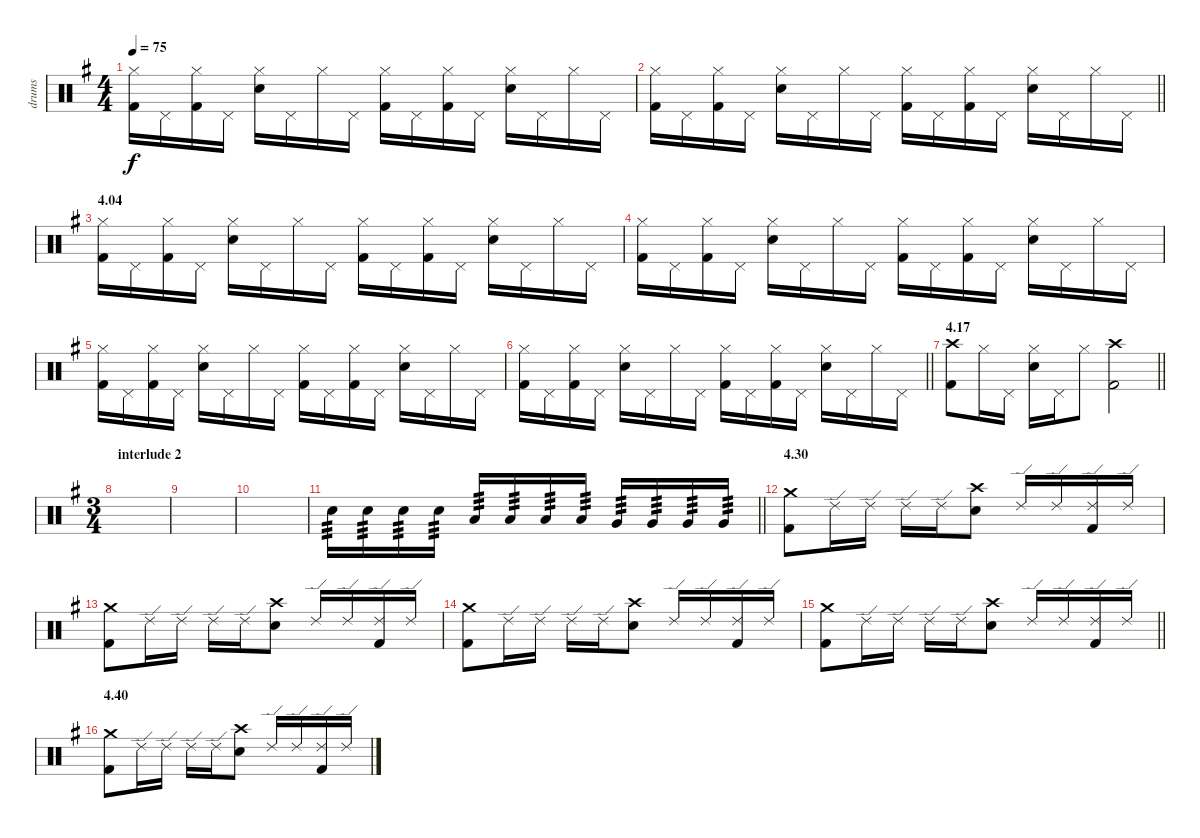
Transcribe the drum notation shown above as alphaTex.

\track ("drums" "drums") {instrument percussion}
\staff {score}
\articulation defaults
\ts (4 4)
\tempo 75
\clef neutral
\ks g
("Hi-Hat (closed)" "Kick (hit) 2").16{dy f} "Pedal Hi-Hat (hit)".16 ("Hi-Hat (closed)" "Kick (hit) 2").16 "Pedal Hi-Hat (hit)".16 ("Hi-Hat (closed)" "Electric Snare (hit)").16 "Pedal Hi-Hat (hit)".16 "Hi-Hat (closed)".16 "Pedal Hi-Hat (hit)".16 ("Hi-Hat (closed)" "Kick (hit) 2").16 "Pedal Hi-Hat (hit)".16 ("Hi-Hat (closed)" "Kick (hit) 2").16 "Pedal Hi-Hat (hit)".16 ("Hi-Hat (closed)" "Electric Snare (hit)").16 "Pedal Hi-Hat (hit)".16 "Hi-Hat (closed)".16 "Pedal Hi-Hat (hit)".16 |
\barLineRight lightlight
("Hi-Hat (closed)" "Kick (hit) 2").16 "Pedal Hi-Hat (hit)".16 ("Hi-Hat (closed)" "Kick (hit) 2").16 "Pedal Hi-Hat (hit)".16 ("Hi-Hat (closed)" "Electric Snare (hit)").16 "Pedal Hi-Hat (hit)".16 "Hi-Hat (closed)".16 "Pedal Hi-Hat (hit)".16 ("Hi-Hat (closed)" "Kick (hit) 2").16 "Pedal Hi-Hat (hit)".16 ("Hi-Hat (closed)" "Kick (hit) 2").16 "Pedal Hi-Hat (hit)".16 ("Hi-Hat (closed)" "Electric Snare (hit)").16 "Pedal Hi-Hat (hit)".16 "Hi-Hat (closed)".16 "Pedal Hi-Hat (hit)".16 |
\section ("" "4.04")
("Hi-Hat (closed)" "Kick (hit) 2").16 "Pedal Hi-Hat (hit)".16 ("Hi-Hat (closed)" "Kick (hit) 2").16 "Pedal Hi-Hat (hit)".16 ("Hi-Hat (closed)" "Electric Snare (hit)").16 "Pedal Hi-Hat (hit)".16 "Hi-Hat (closed)".16 "Pedal Hi-Hat (hit)".16 ("Hi-Hat (closed)" "Kick (hit) 2").16 "Pedal Hi-Hat (hit)".16 ("Hi-Hat (closed)" "Kick (hit) 2").16 "Pedal Hi-Hat (hit)".16 ("Hi-Hat (closed)" "Electric Snare (hit)").16 "Pedal Hi-Hat (hit)".16 "Hi-Hat (closed)".16 "Pedal Hi-Hat (hit)".16 |
("Hi-Hat (closed)" "Kick (hit) 2").16 "Pedal Hi-Hat (hit)".16 ("Hi-Hat (closed)" "Kick (hit) 2").16 "Pedal Hi-Hat (hit)".16 ("Hi-Hat (closed)" "Electric Snare (hit)").16 "Pedal Hi-Hat (hit)".16 "Hi-Hat (closed)".16 "Pedal Hi-Hat (hit)".16 ("Hi-Hat (closed)" "Kick (hit) 2").16 "Pedal Hi-Hat (hit)".16 ("Hi-Hat (closed)" "Kick (hit) 2").16 "Pedal Hi-Hat (hit)".16 ("Hi-Hat (closed)" "Electric Snare (hit)").16 "Pedal Hi-Hat (hit)".16 "Hi-Hat (closed)".16 "Pedal Hi-Hat (hit)".16 |
("Hi-Hat (closed)" "Kick (hit) 2").16 "Pedal Hi-Hat (hit)".16 ("Hi-Hat (closed)" "Kick (hit) 2").16 "Pedal Hi-Hat (hit)".16 ("Hi-Hat (closed)" "Electric Snare (hit)").16 "Pedal Hi-Hat (hit)".16 "Hi-Hat (closed)".16 "Pedal Hi-Hat (hit)".16 ("Hi-Hat (closed)" "Kick (hit) 2").16 "Pedal Hi-Hat (hit)".16 ("Hi-Hat (closed)" "Kick (hit) 2").16 "Pedal Hi-Hat (hit)".16 ("Hi-Hat (closed)" "Electric Snare (hit)").16 "Pedal Hi-Hat (hit)".16 "Hi-Hat (closed)".16 "Pedal Hi-Hat (hit)".16 |
\barLineRight lightlight
("Hi-Hat (closed)" "Kick (hit) 2").16 "Pedal Hi-Hat (hit)".16 ("Hi-Hat (closed)" "Kick (hit) 2").16 "Pedal Hi-Hat (hit)".16 ("Hi-Hat (closed)" "Electric Snare (hit)").16 "Pedal Hi-Hat (hit)".16 "Hi-Hat (closed)".16 "Pedal Hi-Hat (hit)".16 ("Hi-Hat (closed)" "Kick (hit) 2").16 "Pedal Hi-Hat (hit)".16 ("Hi-Hat (closed)" "Kick (hit) 2").16 "Pedal Hi-Hat (hit)".16 ("Hi-Hat (closed)" "Electric Snare (hit)").16 "Pedal Hi-Hat (hit)".16 "Hi-Hat (closed)".16 "Pedal Hi-Hat (hit)".16 |
\section ("" "4.17")
\barLineRight lightlight
("Crash high (hit)" "Kick (hit) 2").8 "Hi-Hat (closed)".16 "Pedal Hi-Hat (hit)".16 ("Hi-Hat (closed)" "Electric Snare (hit)").16 "Pedal Hi-Hat (hit)".16 "Hi-Hat (closed)".8 ("Crash high (hit)" "Kick (hit) 2").2 |
\ts (3 4)
\section ("" "interlude 2")
|
|
|
\barLineRight lightlight "Electric Snare (hit)".16{tp 3} "Electric Snare (hit)".16{tp 3} "Electric Snare (hit)".16{tp 3} "Electric Snare (hit)".16{tp 3} "Low Tom (hit)".16{tp 3} "Low Tom (hit)".16{tp 3} "Low Tom (hit)".16{tp 3} "Low Tom (hit)".16{tp 3} "Very Low Tom (hit)".16{tp 3} "Very Low Tom (hit)".16{tp 3} "Very Low Tom (hit)".16{tp 3} "Very Low Tom (hit)".16{tp 3}
|
\section ("" "4.30")
("Crash medium (hit)" "Kick (hit) 2").8 "Ride (edge) 2".16 "Ride (edge) 2".16 "Ride (edge) 2".16 "Ride (edge) 2".16 ("Crash high (hit)" "Electric Snare (hit)").8 "Ride (edge) 2".16 "Ride (edge) 2".16 ("Ride (edge) 2" "Kick (hit) 2").16 "Ride (edge) 2".16 |
("Crash medium (hit)" "Kick (hit) 2").8 "Ride (edge) 2".16 "Ride (edge) 2".16 "Ride (edge) 2".16 "Ride (edge) 2".16 ("Crash high (hit)" "Electric Snare (hit)").8 "Ride (edge) 2".16 "Ride (edge) 2".16 ("Ride (edge) 2" "Kick (hit) 2").16 "Ride (edge) 2".16 |
("Crash medium (hit)" "Kick (hit) 2").8 "Ride (edge) 2".16 "Ride (edge) 2".16 "Ride (edge) 2".16 "Ride (edge) 2".16 ("Crash high (hit)" "Electric Snare (hit)").8 "Ride (edge) 2".16 "Ride (edge) 2".16 ("Ride (edge) 2" "Kick (hit) 2").16 "Ride (edge) 2".16 |
\barLineRight lightlight
("Crash medium (hit)" "Kick (hit) 2").8 "Ride (edge) 2".16 "Ride (edge) 2".16 "Ride (edge) 2".16 "Ride (edge) 2".16 ("Crash high (hit)" "Electric Snare (hit)").8 "Ride (edge) 2".16 "Ride (edge) 2".16 ("Ride (edge) 2" "Kick (hit) 2").16 "Ride (edge) 2".16 |
\section ("" "4.40")
("Crash medium (hit)" "Kick (hit) 2").8 "Ride (edge) 2".16 "Ride (edge) 2".16 "Ride (edge) 2".16 "Ride (edge) 2".16 ("Crash high (hit)" "Electric Snare (hit)").8 "Ride (edge) 2".16 "Ride (edge) 2".16 ("Ride (edge) 2" "Kick (hit) 2").16 "Ride (edge) 2".16
